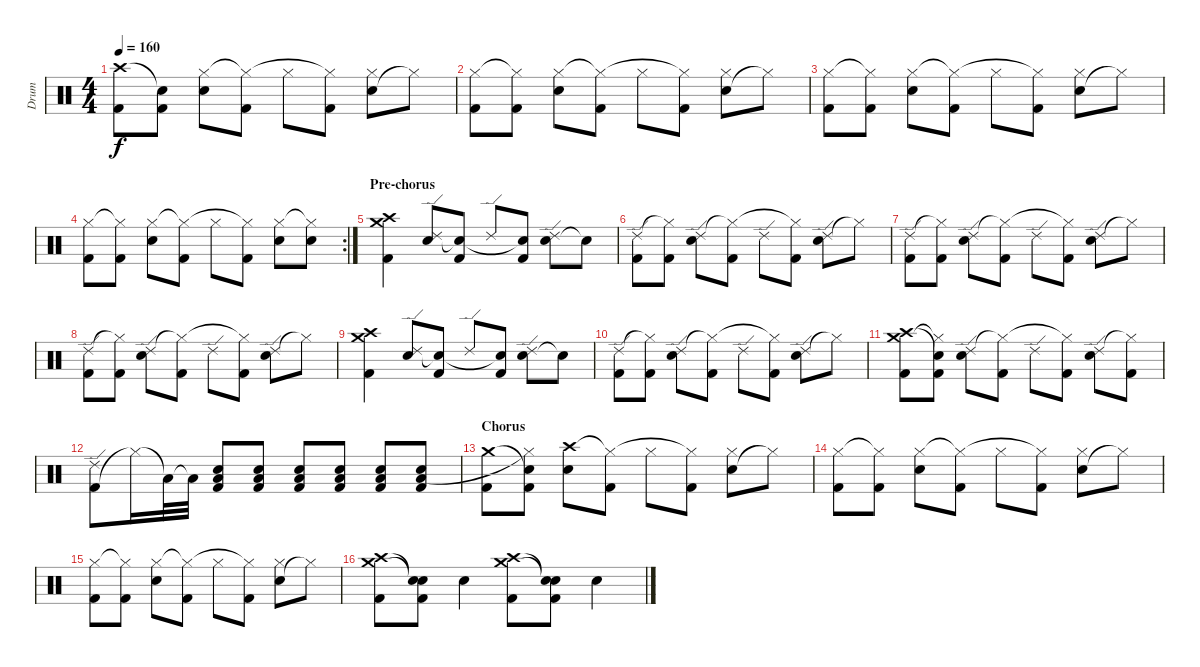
\track ("Drum" "Drum") {instrument percussion}
\staff {score}
\articulation defaults
\ts (4 4)
\tempo 160
\clef neutral
\ks c
("Kick (hit) 2" "Crash high (hit)").8{dy f} ("Kick (hit) 2" "Snare (hit)"{t}).8 ("Electric Snare (hit)" "Hi-Hat (closed)").8 ("Kick (hit) 2" "Hi-Hat (closed)"{t}).8 "Hi-Hat (closed)".8 ("Kick (hit) 2" "Hi-Hat (closed)"{t}).8 ("Electric Snare (hit)" "Hi-Hat (closed)").8 "Hi-Hat (closed)"{t}.8 |
("Kick (hit) 2" "Hi-Hat (closed)").8 ("Kick (hit) 2" "Hi-Hat (closed)"{t}).8 ("Electric Snare (hit)" "Hi-Hat (closed)").8 ("Kick (hit) 2" "Hi-Hat (closed)"{t}).8 "Hi-Hat (closed)".8 ("Kick (hit) 2" "Hi-Hat (closed)"{t}).8 ("Electric Snare (hit)" "Hi-Hat (closed)").8 "Hi-Hat (closed)"{t}.8 |
("Kick (hit) 2" "Hi-Hat (closed)").8 ("Kick (hit) 2" "Hi-Hat (closed)"{t}).8 ("Electric Snare (hit)" "Hi-Hat (closed)").8 ("Kick (hit) 2" "Hi-Hat (closed)"{t}).8 "Hi-Hat (closed)".8 ("Kick (hit) 2" "Hi-Hat (closed)"{t}).8 ("Electric Snare (hit)" "Hi-Hat (closed)").8 "Hi-Hat (closed)"{t}.8 |
\rc 2
("Kick (hit) 2" "Hi-Hat (closed)").8 ("Kick (hit) 2" "Hi-Hat (closed)"{t}).8 ("Electric Snare (hit)" "Hi-Hat (closed)").8 ("Kick (hit) 2" "Hi-Hat (closed)"{t}).8 "Hi-Hat (closed)".8 ("Kick (hit) 2" "Hi-Hat (closed)"{t}).8 ("Electric Snare (hit)" "Hi-Hat (closed)").8 ("Electric Snare (hit)" "Hi-Hat (closed)"{t}).8 |
\section ("" "Pre-chorus")
("Kick (hit) 2" "Crash high (hit)" "Crash medium (hit)").4 ("Electric Snare (hit)" "Ride (edge) 2").8 ("Kick (hit) 2" "Snare (hit)"{t}).8 "Ride (edge) 2".8 ("Kick (hit) 2" "Snare (hit)"{t}).8 ("Electric Snare (hit)" "Ride (edge) 2").8 "Snare (hit)"{t}.8 |
("Kick (hit) 2" "Ride (edge) 2").8 ("Kick (hit) 2" "Hi-Hat (closed)"{t}).8 ("Electric Snare (hit)" "Ride (edge) 2").8 ("Kick (hit) 2" "Hi-Hat (closed)"{t}).8 "Ride (edge) 2".8 ("Kick (hit) 2" "Hi-Hat (closed)"{t}).8 ("Electric Snare (hit)" "Ride (edge) 2").8 "Hi-Hat (closed)"{t}.8 |
("Kick (hit) 2" "Ride (edge) 2").8 ("Kick (hit) 2" "Hi-Hat (closed)"{t}).8 ("Electric Snare (hit)" "Ride (edge) 2").8 ("Kick (hit) 2" "Hi-Hat (closed)"{t}).8 "Ride (edge) 2".8 ("Kick (hit) 2" "Hi-Hat (closed)"{t}).8 ("Electric Snare (hit)" "Ride (edge) 2").8 "Hi-Hat (closed)"{t}.8 |
("Kick (hit) 2" "Ride (edge) 2").8 ("Kick (hit) 2" "Hi-Hat (closed)"{t}).8 ("Electric Snare (hit)" "Ride (edge) 2").8 ("Kick (hit) 2" "Hi-Hat (closed)"{t}).8 "Ride (edge) 2".8 ("Kick (hit) 2" "Hi-Hat (closed)"{t}).8 ("Electric Snare (hit)" "Ride (edge) 2").8 "Hi-Hat (closed)"{t}.8 |
("Kick (hit) 2" "Crash high (hit)" "Crash medium (hit)").4 ("Electric Snare (hit)" "Ride (edge) 2").8 ("Kick (hit) 2" "Snare (hit)"{t}).8 "Ride (edge) 2".8 ("Kick (hit) 2" "Snare (hit)"{t}).8 ("Electric Snare (hit)" "Ride (edge) 2").8 "Snare (hit)"{t}.8 |
("Kick (hit) 2" "Ride (edge) 2").8 ("Kick (hit) 2" "Hi-Hat (closed)"{t}).8 ("Electric Snare (hit)" "Ride (edge) 2").8 ("Kick (hit) 2" "Hi-Hat (closed)"{t}).8 "Ride (edge) 2".8 ("Kick (hit) 2" "Hi-Hat (closed)"{t}).8 ("Electric Snare (hit)" "Ride (edge) 2").8 "Hi-Hat (closed)"{t}.8 |
("Kick (hit) 2" "Crash high (hit)" "Crash medium (hit)").8 ("Kick (hit) 2" "Snare (hit)"{t} "Hi-Hat (closed)"{t}).8 ("Electric Snare (hit)" "Ride (edge) 2").8 ("Kick (hit) 2" "Hi-Hat (closed)"{t}).8 "Ride (edge) 2".8 ("Kick (hit) 2" "Hi-Hat (closed)"{t}).8 ("Electric Snare (hit)" "Ride (edge) 2").8 ("Kick (hit) 2" "Hi-Hat (closed)"{t}).8 |
("Kick (hit) 2" "Ride (edge) 2").8 "Hi-Hat (closed)"{t}.16 "Low Floor Tom (hit)"{t}.32{volume 3} "Low Floor Tom (hit)"{t}.32 ("Kick (hit) 2" "Electric Snare (hit)" "Low Floor Tom (hit)").8{volume 10} ("Kick (hit) 2" "Electric Snare (hit)" "Low Floor Tom (hit)").8 ("Kick (hit) 2" "Electric Snare (hit)" "Low Floor Tom (hit)").8 ("Kick (hit) 2" "Electric Snare (hit)" "Low Floor Tom (hit)").8 ("Kick (hit) 2" "Electric Snare (hit)" "Low Floor Tom (hit)").8 ("Kick (hit) 2" "Electric Snare (hit)" "Low Floor Tom (hit)").8 |
\section ("" "Chorus")
("Kick (hit) 2" "Crash medium (hit)").8 ("Kick (hit) 2" "Electric Snare (hit)"{t} "Hi-Hat (closed)"{t}).8 ("Electric Snare (hit)" "Crash high (hit)").8 ("Kick (hit) 2" "Hi-Hat (closed)"{t}).8 "Hi-Hat (closed)".8 ("Kick (hit) 2" "Hi-Hat (closed)"{t}).8 ("Electric Snare (hit)" "Hi-Hat (closed)").8 "Hi-Hat (closed)"{t}.8 |
("Kick (hit) 2" "Hi-Hat (closed)").8 ("Kick (hit) 2" "Hi-Hat (closed)"{t}).8 ("Electric Snare (hit)" "Hi-Hat (closed)").8 ("Kick (hit) 2" "Hi-Hat (closed)"{t}).8 "Hi-Hat (closed)".8 ("Kick (hit) 2" "Hi-Hat (closed)"{t}).8 ("Electric Snare (hit)" "Hi-Hat (closed)").8 "Hi-Hat (closed)"{t}.8 |
("Kick (hit) 2" "Hi-Hat (closed)").8 ("Kick (hit) 2" "Hi-Hat (closed)"{t}).8 ("Electric Snare (hit)" "Hi-Hat (closed)").8 ("Kick (hit) 2" "Hi-Hat (closed)"{t}).8 "Hi-Hat (closed)".8 ("Kick (hit) 2" "Hi-Hat (closed)"{t}).8 ("Electric Snare (hit)" "Hi-Hat (closed)").8 "Hi-Hat (closed)"{t}.8 |
("Kick (hit) 2" "Crash high (hit)" "Crash medium (hit)").8 ("Kick (hit) 2" "Electric Snare (hit)"{t} "Snare (hit)"{t}).8 "Electric Snare (hit)".4 ("Kick (hit) 2" "Crash high (hit)" "Crash medium (hit)").8 ("Kick (hit) 2" "Snare (hit)"{t} "Snare (hit)"{t}).8 "Electric Snare (hit)".4
